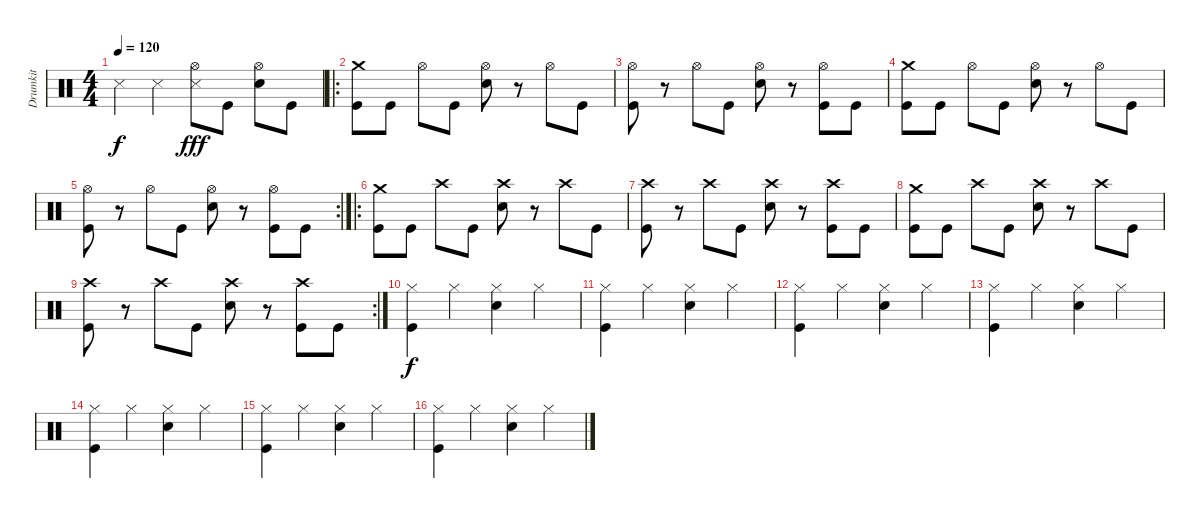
\track ("Drumkit" "Drumkit") {instrument percussion}
\staff {score}
\articulation defaults
\ts (4 4)
\tempo 120
\clef neutral
\ks c "Snare (side stick) 3".4{dy f} "Snare (side stick) 3".4
("Hi-Hat (open)" "Snare (side stick) 3").8{dy fff} "Kick (hit)".8 ("Snare (hit) 2" "Hi-Hat (open)").8 "Kick (hit)".8 |
\ro
("Kick (hit)" "Crash medium (hit)").8 "Kick (hit)".8 "Hi-Hat (open)".8 "Kick (hit)".8 ("Snare (hit) 2" "Hi-Hat (open)").8 r.8 "Hi-Hat (open)".8 "Kick (hit)".8 |
("Kick (hit)" "Hi-Hat (open)").8 r.8 "Hi-Hat (open)".8 "Kick (hit)".8 ("Snare (hit) 2" "Hi-Hat (open)").8 r.8 ("Kick (hit)" "Hi-Hat (open)").8 "Kick (hit)".8 |
("Kick (hit)" "Crash medium (hit)").8 "Kick (hit)".8 "Hi-Hat (open)".8 "Kick (hit)".8 ("Snare (hit) 2" "Hi-Hat (open)").8 r.8 "Hi-Hat (open)".8 "Kick (hit)".8 |
\rc 2
("Kick (hit)" "Hi-Hat (open)").8 r.8 "Hi-Hat (open)".8 "Kick (hit)".8 ("Snare (hit) 2" "Hi-Hat (open)").8 r.8 ("Kick (hit)" "Hi-Hat (open)").8 "Kick (hit)".8 |
\ro
("Kick (hit)" "Crash medium (hit)").8 "Kick (hit)".8 "Crash high (hit)".8 "Kick (hit)".8 ("Snare (hit) 2" "Crash high (hit)").8 r.8 "Crash high (hit)".8 "Kick (hit)".8 |
("Kick (hit)" "Crash high (hit)").8 r.8 "Crash high (hit)".8 "Kick (hit)".8 ("Snare (hit) 2" "Crash high (hit)").8 r.8 ("Kick (hit)" "Crash high (hit)").8 "Kick (hit)".8 |
("Kick (hit)" "Crash medium (hit)").8 "Kick (hit)".8 "Crash high (hit)".8 "Kick (hit)".8 ("Snare (hit) 2" "Crash high (hit)").8 r.8 "Crash high (hit)".8 "Kick (hit)".8 |
\rc 2
("Kick (hit)" "Crash high (hit)").8 r.8 "Crash high (hit)".8 "Kick (hit)".8 ("Snare (hit) 2" "Crash high (hit)").8 r.8 ("Kick (hit)" "Crash high (hit)").8 "Kick (hit)".8 |
("Kick (hit)" "Hi-Hat (closed)").4{dy f} "Hi-Hat (closed)".4 ("Hi-Hat (closed)" "Snare (hit) 2").4 "Hi-Hat (closed)".4 |
("Kick (hit)" "Hi-Hat (closed)").4 "Hi-Hat (closed)".4 ("Hi-Hat (closed)" "Snare (hit) 2").4 "Hi-Hat (closed)".4 |
("Kick (hit)" "Hi-Hat (closed)").4 "Hi-Hat (closed)".4 ("Hi-Hat (closed)" "Snare (hit) 2").4 "Hi-Hat (closed)".4 |
("Kick (hit)" "Hi-Hat (closed)").4 "Hi-Hat (closed)".4 ("Hi-Hat (closed)" "Snare (hit) 2").4 "Hi-Hat (closed)".4 |
("Kick (hit)" "Hi-Hat (closed)").4 "Hi-Hat (closed)".4 ("Hi-Hat (closed)" "Snare (hit) 2").4 "Hi-Hat (closed)".4 |
("Kick (hit)" "Hi-Hat (closed)").4 "Hi-Hat (closed)".4 ("Hi-Hat (closed)" "Snare (hit) 2").4 "Hi-Hat (closed)".4 |
("Kick (hit)" "Hi-Hat (closed)").4 "Hi-Hat (closed)".4 ("Hi-Hat (closed)" "Snare (hit) 2").4 "Hi-Hat (closed)".4
